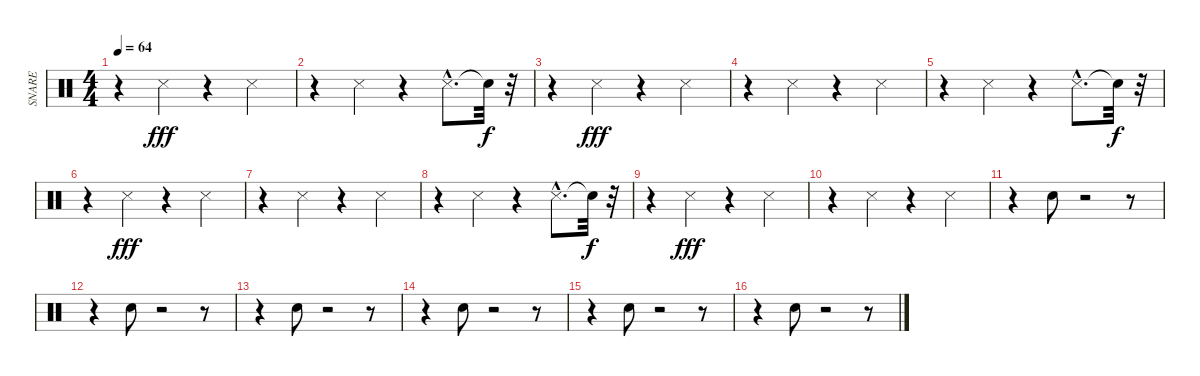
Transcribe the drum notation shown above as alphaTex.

\track ("SNARE" "SNARE") {instrument percussion}
\staff {score}
\articulation defaults
\ts (4 4)
\tempo 64
\clef neutral
\ks c
r.4{dy fff} "Snare (side stick) 3".4 r.4 "Snare (side stick) 3".4 |
r.4 "Snare (side stick) 3".4 r.4 "Snare (side stick) 3"{hac}.8{d} "Snare (hit)"{t}.32{dy f} r.32 |
r.4 "Snare (side stick) 3".4{dy fff} r.4 "Snare (side stick) 3".4 |
r.4 "Snare (side stick) 3".4 r.4 "Snare (side stick) 3".4 |
r.4 "Snare (side stick) 3".4 r.4 "Snare (side stick) 3"{hac}.8{d} "Snare (hit)"{t}.32{dy f} r.32 |
r.4 "Snare (side stick) 3".4{dy fff} r.4 "Snare (side stick) 3".4 |
r.4 "Snare (side stick) 3".4 r.4 "Snare (side stick) 3".4 |
r.4 "Snare (side stick) 3".4 r.4 "Snare (side stick) 3"{hac}.8{d} "Snare (hit)"{t}.32{dy f} r.32 |
r.4 "Snare (side stick) 3".4{dy fff} r.4 "Snare (side stick) 3".4 |
r.4 "Snare (side stick) 3".4 r.4 "Snare (side stick) 3".4 |
r.4 "Snare (hit) 2".8 r.2 r.8 |
r.4 "Snare (hit) 2".8 r.2 r.8 |
r.4 "Snare (hit) 2".8 r.2 r.8 |
r.4 "Snare (hit) 2".8 r.2 r.8 |
r.4 "Snare (hit) 2".8 r.2 r.8 |
r.4 "Snare (hit) 2".8 r.2 r.8
